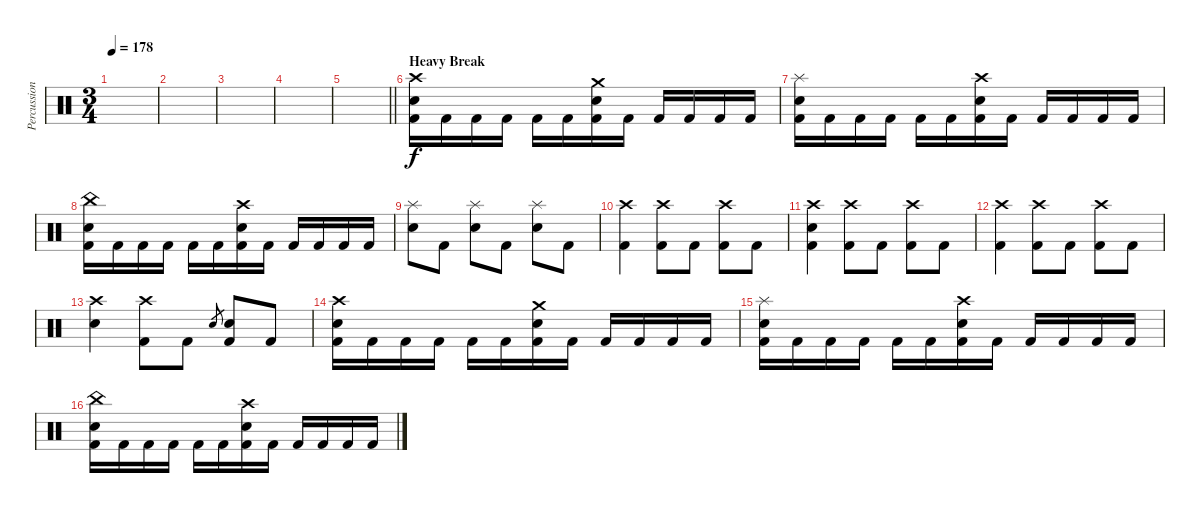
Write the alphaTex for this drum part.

\track ("Percussion" "Percussion") {instrument percussion}
\staff {score}
\articulation defaults
\ts (3 4)
\tempo 178
\clef neutral
\ks c
|
|
|
|
\barLineRight lightlight
|
\section ("" "Heavy Break")
("Crash high (hit)" "Electric Snare (hit)" "Kick (hit) 2").16 "Kick (hit) 2".16 "Kick (hit) 2".16 "Kick (hit) 2".16 "Kick (hit) 2".16 "Kick (hit) 2".16 ("Crash medium (hit)" "Electric Snare (hit)" "Kick (hit) 2").16 "Kick (hit) 2".16 "Kick (hit) 2".16 "Kick (hit) 2".16 "Kick (hit) 2".16 "Kick (hit) 2".16 |
("Splash (hit)" "Electric Snare (hit)" "Kick (hit) 2").16 "Kick (hit) 2".16 "Kick (hit) 2".16 "Kick (hit) 2".16 "Kick (hit) 2".16 "Kick (hit) 2".16 ("Crash high (hit)" "Electric Snare (hit)" "Kick (hit) 2").16 "Kick (hit) 2".16 "Kick (hit) 2".16 "Kick (hit) 2".16 "Kick (hit) 2".16 "Kick (hit) 2".16 |
("China (hit)" "Electric Snare (hit)" "Kick (hit) 2").16 "Kick (hit) 2".16 "Kick (hit) 2".16 "Kick (hit) 2".16 "Kick (hit) 2".16 "Kick (hit) 2".16 ("Crash high (hit)" "Electric Snare (hit)" "Kick (hit) 2").16 "Kick (hit) 2".16 "Kick (hit) 2".16 "Kick (hit) 2".16 "Kick (hit) 2".16 "Kick (hit) 2".16 |
("Splash (hit)" "Electric Snare (hit)").8 "Kick (hit) 2".8 ("Splash (hit)" "Electric Snare (hit)").8 "Kick (hit) 2".8 ("Splash (hit)" "Electric Snare (hit)").8 "Kick (hit) 2".8 |
("Crash high (hit)" "Kick (hit) 2").4 ("Crash high (hit)" "Kick (hit) 2").8 "Kick (hit) 2".8 ("Crash high (hit)" "Kick (hit) 2").8 "Kick (hit) 2".8 |
("Crash high (hit)" "Electric Snare (hit)" "Kick (hit) 2").4 ("Crash high (hit)" "Kick (hit) 2").8 "Kick (hit) 2".8 ("Crash high (hit)" "Kick (hit) 2").8 "Kick (hit) 2".8 |
("Crash high (hit)" "Kick (hit) 2").4 ("Crash high (hit)" "Kick (hit) 2").8 "Kick (hit) 2".8 ("Crash high (hit)" "Kick (hit) 2").8 "Kick (hit) 2".8 |
("Crash high (hit)" "Electric Snare (hit)").4 ("Crash high (hit)" "Kick (hit) 2").8 "Kick (hit) 2".8 "Electric Snare (hit)".8{gr} ("Electric Snare (hit)" "Kick (hit) 2").8 "Kick (hit) 2".8 |
("Crash high (hit)" "Electric Snare (hit)" "Kick (hit) 2").16 "Kick (hit) 2".16 "Kick (hit) 2".16 "Kick (hit) 2".16 "Kick (hit) 2".16 "Kick (hit) 2".16 ("Crash medium (hit)" "Electric Snare (hit)" "Kick (hit) 2").16 "Kick (hit) 2".16 "Kick (hit) 2".16 "Kick (hit) 2".16 "Kick (hit) 2".16 "Kick (hit) 2".16 |
("Splash (hit)" "Electric Snare (hit)" "Kick (hit) 2").16 "Kick (hit) 2".16 "Kick (hit) 2".16 "Kick (hit) 2".16 "Kick (hit) 2".16 "Kick (hit) 2".16 ("Crash high (hit)" "Electric Snare (hit)" "Kick (hit) 2").16 "Kick (hit) 2".16 "Kick (hit) 2".16 "Kick (hit) 2".16 "Kick (hit) 2".16 "Kick (hit) 2".16 |
("China (hit)" "Electric Snare (hit)" "Kick (hit) 2").16 "Kick (hit) 2".16 "Kick (hit) 2".16 "Kick (hit) 2".16 "Kick (hit) 2".16 "Kick (hit) 2".16 ("Crash high (hit)" "Electric Snare (hit)" "Kick (hit) 2").16 "Kick (hit) 2".16 "Kick (hit) 2".16 "Kick (hit) 2".16 "Kick (hit) 2".16 "Kick (hit) 2".16
